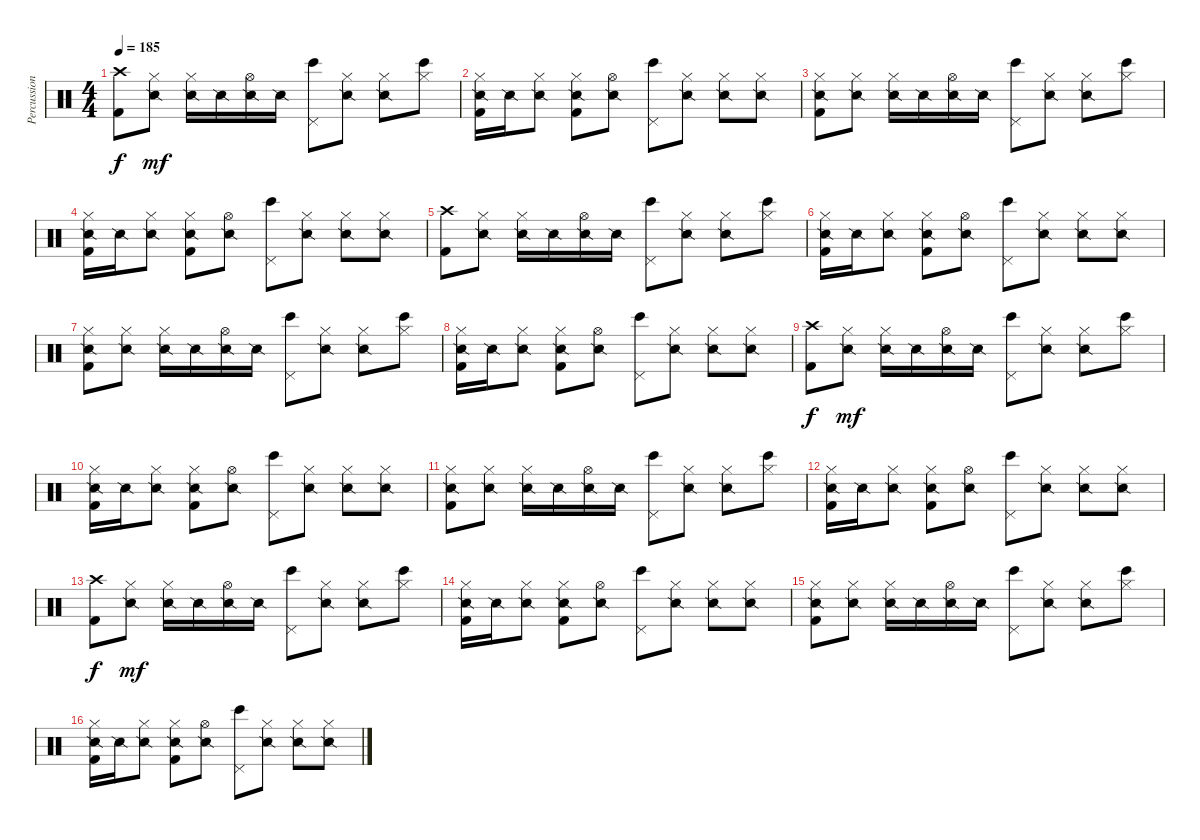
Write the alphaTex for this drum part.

\track ("Percussion" "Percussion") {instrument percussion}
\staff {score}
\articulation defaults
\ts (4 4)
\tempo 185
\clef neutral
\ks c
("Crash high (hit)" "Kick (hit) 2").8{dy f} ("Hi-Hat (closed)" "Snare (side stick) 2").8{dy mf} ("Hi-Hat (closed)" "Snare (side stick) 2").16 "Snare (side stick) 2".16 ("Hi-Hat (open)" "Snare (side stick) 2").16 "Snare (side stick) 2".16 ("Pedal Hi-Hat (hit)" "Bongo High (hit)").8 ("Hi-Hat (closed)" "Snare (side stick) 2").8 ("Hi-Hat (closed)" "Snare (side stick) 2").8 ("Hi-Hat (closed)" "Bongo High (hit)").8 |
("Hi-Hat (closed)" "Snare (side stick) 2" "Kick (hit) 2").16 "Snare (side stick) 2".16 ("Hi-Hat (closed)" "Snare (side stick) 2").8 ("Hi-Hat (closed)" "Snare (side stick) 2" "Kick (hit) 2").8 ("Hi-Hat (open)" "Snare (side stick) 2").8 ("Pedal Hi-Hat (hit)" "Bongo High (hit)").8 ("Hi-Hat (closed)" "Snare (side stick) 2").8 ("Hi-Hat (closed)" "Snare (side stick) 2").8 ("Hi-Hat (closed)" "Snare (side stick) 2").8 |
("Hi-Hat (closed)" "Snare (side stick) 2" "Kick (hit) 2").8 ("Hi-Hat (closed)" "Snare (side stick) 2").8 ("Hi-Hat (closed)" "Snare (side stick) 2").16 "Snare (side stick) 2".16 ("Hi-Hat (open)" "Snare (side stick) 2").16 "Snare (side stick) 2".16 ("Pedal Hi-Hat (hit)" "Bongo High (hit)").8 ("Hi-Hat (closed)" "Snare (side stick) 2").8 ("Hi-Hat (closed)" "Snare (side stick) 2").8 ("Hi-Hat (closed)" "Bongo High (hit)").8 |
("Hi-Hat (closed)" "Snare (side stick) 2" "Kick (hit) 2").16 "Snare (side stick) 2".16 ("Hi-Hat (closed)" "Snare (side stick) 2").8 ("Hi-Hat (closed)" "Snare (side stick) 2" "Kick (hit) 2").8 ("Hi-Hat (open)" "Snare (side stick) 2").8 ("Pedal Hi-Hat (hit)" "Bongo High (hit)").8 ("Hi-Hat (closed)" "Snare (side stick) 2").8 ("Hi-Hat (closed)" "Snare (side stick) 2").8 ("Hi-Hat (closed)" "Snare (side stick) 2").8 |
("Crash high (hit)" "Kick (hit) 2").8 ("Hi-Hat (closed)" "Snare (side stick) 2").8 ("Hi-Hat (closed)" "Snare (side stick) 2").16 "Snare (side stick) 2".16 ("Hi-Hat (open)" "Snare (side stick) 2").16 "Snare (side stick) 2".16 ("Pedal Hi-Hat (hit)" "Bongo High (hit)").8 ("Hi-Hat (closed)" "Snare (side stick) 2").8 ("Hi-Hat (closed)" "Snare (side stick) 2").8 ("Hi-Hat (closed)" "Bongo High (hit)").8 |
("Hi-Hat (closed)" "Snare (side stick) 2" "Kick (hit) 2").16 "Snare (side stick) 2".16 ("Hi-Hat (closed)" "Snare (side stick) 2").8 ("Hi-Hat (closed)" "Snare (side stick) 2" "Kick (hit) 2").8 ("Hi-Hat (open)" "Snare (side stick) 2").8 ("Pedal Hi-Hat (hit)" "Bongo High (hit)").8 ("Hi-Hat (closed)" "Snare (side stick) 2").8 ("Hi-Hat (closed)" "Snare (side stick) 2").8 ("Hi-Hat (closed)" "Snare (side stick) 2").8 |
("Hi-Hat (closed)" "Snare (side stick) 2" "Kick (hit) 2").8 ("Hi-Hat (closed)" "Snare (side stick) 2").8 ("Hi-Hat (closed)" "Snare (side stick) 2").16 "Snare (side stick) 2".16 ("Hi-Hat (open)" "Snare (side stick) 2").16 "Snare (side stick) 2".16 ("Pedal Hi-Hat (hit)" "Bongo High (hit)").8 ("Hi-Hat (closed)" "Snare (side stick) 2").8 ("Hi-Hat (closed)" "Snare (side stick) 2").8 ("Hi-Hat (closed)" "Bongo High (hit)").8 |
("Hi-Hat (closed)" "Snare (side stick) 2" "Kick (hit) 2").16 "Snare (side stick) 2".16 ("Hi-Hat (closed)" "Snare (side stick) 2").8 ("Hi-Hat (closed)" "Snare (side stick) 2" "Kick (hit) 2").8 ("Hi-Hat (open)" "Snare (side stick) 2").8 ("Pedal Hi-Hat (hit)" "Bongo High (hit)").8 ("Hi-Hat (closed)" "Snare (side stick) 2").8 ("Hi-Hat (closed)" "Snare (side stick) 2").8 ("Hi-Hat (closed)" "Snare (side stick) 2").8 |
("Crash high (hit)" "Kick (hit) 2").8{dy f} ("Hi-Hat (closed)" "Snare (side stick) 2").8{dy mf} ("Hi-Hat (closed)" "Snare (side stick) 2").16 "Snare (side stick) 2".16 ("Hi-Hat (open)" "Snare (side stick) 2").16 "Snare (side stick) 2".16 ("Pedal Hi-Hat (hit)" "Bongo High (hit)").8 ("Hi-Hat (closed)" "Snare (side stick) 2").8 ("Hi-Hat (closed)" "Snare (side stick) 2").8 ("Hi-Hat (closed)" "Bongo High (hit)").8 |
("Hi-Hat (closed)" "Snare (side stick) 2" "Kick (hit) 2").16 "Snare (side stick) 2".16 ("Hi-Hat (closed)" "Snare (side stick) 2").8 ("Hi-Hat (closed)" "Snare (side stick) 2" "Kick (hit) 2").8 ("Hi-Hat (open)" "Snare (side stick) 2").8 ("Pedal Hi-Hat (hit)" "Bongo High (hit)").8 ("Hi-Hat (closed)" "Snare (side stick) 2").8 ("Hi-Hat (closed)" "Snare (side stick) 2").8 ("Hi-Hat (closed)" "Snare (side stick) 2").8 |
("Hi-Hat (closed)" "Snare (side stick) 2" "Kick (hit) 2").8 ("Hi-Hat (closed)" "Snare (side stick) 2").8 ("Hi-Hat (closed)" "Snare (side stick) 2").16 "Snare (side stick) 2".16 ("Hi-Hat (open)" "Snare (side stick) 2").16 "Snare (side stick) 2".16 ("Pedal Hi-Hat (hit)" "Bongo High (hit)").8 ("Hi-Hat (closed)" "Snare (side stick) 2").8 ("Hi-Hat (closed)" "Snare (side stick) 2").8 ("Hi-Hat (closed)" "Bongo High (hit)").8 |
("Hi-Hat (closed)" "Snare (side stick) 2" "Kick (hit) 2").16 "Snare (side stick) 2".16 ("Hi-Hat (closed)" "Snare (side stick) 2").8 ("Hi-Hat (closed)" "Snare (side stick) 2" "Kick (hit) 2").8 ("Hi-Hat (open)" "Snare (side stick) 2").8 ("Pedal Hi-Hat (hit)" "Bongo High (hit)").8 ("Hi-Hat (closed)" "Snare (side stick) 2").8 ("Hi-Hat (closed)" "Snare (side stick) 2").8 ("Hi-Hat (closed)" "Snare (side stick) 2").8 |
("Crash high (hit)" "Kick (hit) 2").8{dy f} ("Hi-Hat (closed)" "Snare (side stick) 2").8{dy mf} ("Hi-Hat (closed)" "Snare (side stick) 2").16 "Snare (side stick) 2".16 ("Hi-Hat (open)" "Snare (side stick) 2").16 "Snare (side stick) 2".16 ("Pedal Hi-Hat (hit)" "Bongo High (hit)").8 ("Hi-Hat (closed)" "Snare (side stick) 2").8 ("Hi-Hat (closed)" "Snare (side stick) 2").8 ("Hi-Hat (closed)" "Bongo High (hit)").8 |
("Hi-Hat (closed)" "Snare (side stick) 2" "Kick (hit) 2").16 "Snare (side stick) 2".16 ("Hi-Hat (closed)" "Snare (side stick) 2").8 ("Hi-Hat (closed)" "Snare (side stick) 2" "Kick (hit) 2").8 ("Hi-Hat (open)" "Snare (side stick) 2").8 ("Pedal Hi-Hat (hit)" "Bongo High (hit)").8 ("Hi-Hat (closed)" "Snare (side stick) 2").8 ("Hi-Hat (closed)" "Snare (side stick) 2").8 ("Hi-Hat (closed)" "Snare (side stick) 2").8 |
("Hi-Hat (closed)" "Snare (side stick) 2" "Kick (hit) 2").8 ("Hi-Hat (closed)" "Snare (side stick) 2").8 ("Hi-Hat (closed)" "Snare (side stick) 2").16 "Snare (side stick) 2".16 ("Hi-Hat (open)" "Snare (side stick) 2").16 "Snare (side stick) 2".16 ("Pedal Hi-Hat (hit)" "Bongo High (hit)").8 ("Hi-Hat (closed)" "Snare (side stick) 2").8 ("Hi-Hat (closed)" "Snare (side stick) 2").8 ("Hi-Hat (closed)" "Bongo High (hit)").8 |
("Hi-Hat (closed)" "Snare (side stick) 2" "Kick (hit) 2").16 "Snare (side stick) 2".16 ("Hi-Hat (closed)" "Snare (side stick) 2").8 ("Hi-Hat (closed)" "Snare (side stick) 2" "Kick (hit) 2").8 ("Hi-Hat (open)" "Snare (side stick) 2").8 ("Pedal Hi-Hat (hit)" "Bongo High (hit)").8 ("Hi-Hat (closed)" "Snare (side stick) 2").8 ("Hi-Hat (closed)" "Snare (side stick) 2").8 ("Hi-Hat (closed)" "Snare (side stick) 2").8
